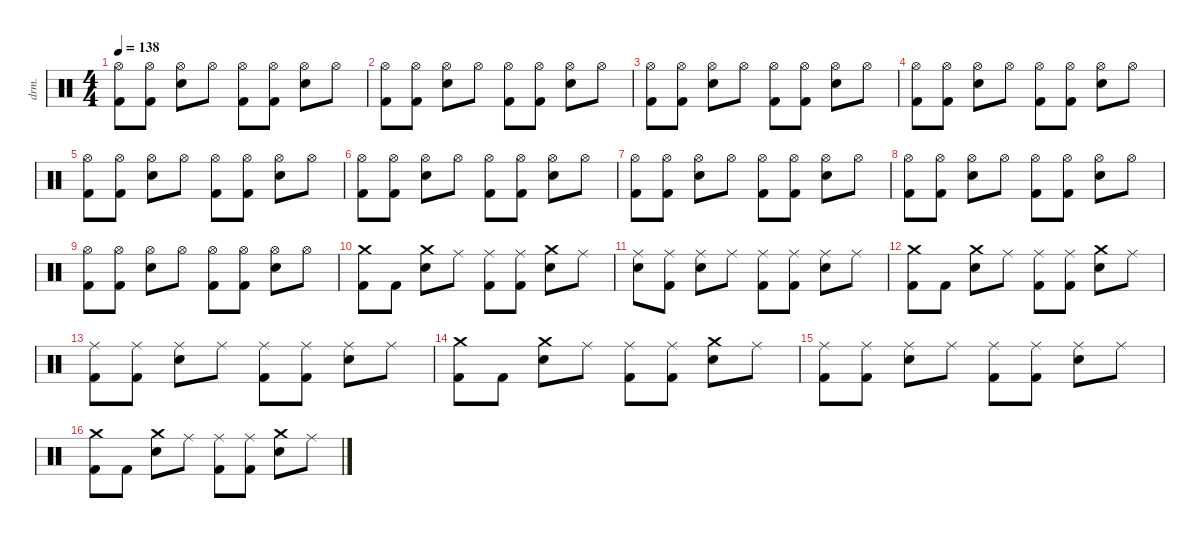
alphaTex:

\defaultSystemsLayout 4
\hideDynamics
\bracketExtendMode nobrackets
\otherSystemsTrackNameOrientation horizontal
\track ("Alex Van Halen " "drm.") {instrument percussion}
\staff {score}
\articulation defaults
\ts (4 4)
\tempo 138
\clef neutral
\ks c
("Hi-Hat (open)" "Kick (hit) 2").8{dy f beam Down} ("Hi-Hat (open)" "Kick (hit) 2").8{beam Down} ("Hi-Hat (open)" "Snare (hit) 2").8{beam Down} "Hi-Hat (open)".8{beam Down} ("Hi-Hat (open)" "Kick (hit) 2").8{beam Down} ("Hi-Hat (open)" "Kick (hit) 2").8{beam Down} ("Hi-Hat (open)" "Snare (hit) 2").8{beam Down} "Hi-Hat (open)".8{beam Down} |
("Hi-Hat (open)" "Kick (hit) 2").8{beam Down} ("Hi-Hat (open)" "Kick (hit) 2").8{beam Down} ("Hi-Hat (open)" "Snare (hit) 2").8{beam Down} "Hi-Hat (open)".8{beam Down} ("Hi-Hat (open)" "Kick (hit) 2").8{beam Down} ("Hi-Hat (open)" "Kick (hit) 2").8{beam Down} ("Hi-Hat (open)" "Snare (hit) 2").8{beam Down} "Hi-Hat (open)".8{beam Down} |
("Hi-Hat (open)" "Kick (hit) 2").8{beam Down} ("Hi-Hat (open)" "Kick (hit) 2").8{beam Down} ("Hi-Hat (open)" "Snare (hit) 2").8{beam Down} "Hi-Hat (open)".8{beam Down} ("Hi-Hat (open)" "Kick (hit) 2").8{beam Down} ("Hi-Hat (open)" "Kick (hit) 2").8{beam Down} ("Hi-Hat (open)" "Snare (hit) 2").8{beam Down} "Hi-Hat (open)".8{beam Down} |
("Hi-Hat (open)" "Kick (hit) 2").8{beam Down} ("Hi-Hat (open)" "Kick (hit) 2").8{beam Down} ("Hi-Hat (open)" "Snare (hit) 2").8{beam Down} "Hi-Hat (open)".8{beam Down} ("Hi-Hat (open)" "Kick (hit) 2").8{beam Down} ("Hi-Hat (open)" "Kick (hit) 2").8{beam Down} ("Hi-Hat (open)" "Snare (hit) 2").8{beam Down} "Hi-Hat (open)".8{beam Down} |
("Hi-Hat (open)" "Kick (hit) 2").8{beam Down} ("Hi-Hat (open)" "Kick (hit) 2").8{beam Down} ("Hi-Hat (open)" "Snare (hit) 2").8{beam Down} "Hi-Hat (open)".8{beam Down} ("Hi-Hat (open)" "Kick (hit) 2").8{beam Down} ("Hi-Hat (open)" "Kick (hit) 2").8{beam Down} ("Hi-Hat (open)" "Snare (hit) 2").8{beam Down} "Hi-Hat (open)".8{beam Down} |
("Hi-Hat (open)" "Kick (hit) 2").8{beam Down} ("Hi-Hat (open)" "Kick (hit) 2").8{beam Down} ("Hi-Hat (open)" "Snare (hit) 2").8{beam Down} "Hi-Hat (open)".8{beam Down} ("Hi-Hat (open)" "Kick (hit) 2").8{beam Down} ("Hi-Hat (open)" "Kick (hit) 2").8{beam Down} ("Hi-Hat (open)" "Snare (hit) 2").8{beam Down} "Hi-Hat (open)".8{beam Down} |
("Hi-Hat (open)" "Kick (hit) 2").8{beam Down} ("Hi-Hat (open)" "Kick (hit) 2").8{beam Down} ("Hi-Hat (open)" "Snare (hit) 2").8{beam Down} "Hi-Hat (open)".8{beam Down} ("Hi-Hat (open)" "Kick (hit) 2").8{beam Down} ("Hi-Hat (open)" "Kick (hit) 2").8{beam Down} ("Hi-Hat (open)" "Snare (hit) 2").8{beam Down} "Hi-Hat (open)".8{beam Down} |
("Hi-Hat (open)" "Kick (hit) 2").8{beam Down} ("Hi-Hat (open)" "Kick (hit) 2").8{beam Down} ("Hi-Hat (open)" "Snare (hit) 2").8{beam Down} "Hi-Hat (open)".8{beam Down} ("Hi-Hat (open)" "Kick (hit) 2").8{beam Down} ("Hi-Hat (open)" "Kick (hit) 2").8{beam Down} ("Hi-Hat (open)" "Snare (hit) 2").8{beam Down} "Hi-Hat (open)".8{beam Down} |
("Hi-Hat (open)" "Kick (hit) 2").8{beam Down} ("Hi-Hat (open)" "Kick (hit) 2").8{beam Down} ("Hi-Hat (open)" "Snare (hit) 2").8{beam Down} "Hi-Hat (open)".8{beam Down} ("Hi-Hat (open)" "Kick (hit) 2").8{beam Down} ("Hi-Hat (open)" "Kick (hit) 2").8{beam Down} ("Hi-Hat (open)" "Snare (hit) 2").8{beam Down} "Hi-Hat (open)".8{beam Down} |
("Kick (hit) 2" "Crash medium (hit)").8{dy ff beam Down} "Kick (hit) 2".8{dy f beam Down} ("Snare (hit) 2" "Crash medium (hit)").8{dy fff beam Down} "Ride (middle)".8{dy f beam Down} ("Kick (hit) 2" "Ride (middle)").8{dy ff beam Down} ("Kick (hit) 2" "Ride (middle)").8{dy f beam Down} ("Snare (hit) 2" "Crash medium (hit)").8{dy fff beam Down} "Ride (middle)".8{dy f beam Down} |
("Snare (hit) 2" "Ride (middle)").8{beam Down} ("Kick (hit) 2" "Ride (middle)").8{beam Down} ("Snare (hit) 2" "Ride (middle)").8{dy fff beam Down} "Ride (middle)".8{dy f beam Down} ("Kick (hit) 2" "Ride (middle)").8{dy ff beam Down} ("Kick (hit) 2" "Ride (middle)").8{dy f beam Down} ("Snare (hit) 2" "Ride (middle)").8{dy fff beam Down} "Ride (middle)".8{dy f beam Down} |
("Kick (hit) 2" "Crash medium (hit)").8{dy ff beam Down} "Kick (hit) 2".8{dy f beam Down} ("Snare (hit) 2" "Crash medium (hit)").8{dy fff beam Down} "Ride (middle)".8{dy f beam Down} ("Kick (hit) 2" "Ride (middle)").8{dy ff beam Down} ("Kick (hit) 2" "Ride (middle)").8{dy f beam Down} ("Snare (hit) 2" "Crash medium (hit)").8{dy fff beam Down} "Ride (middle)".8{dy f beam Down} |
("Kick (hit) 2" "Ride (middle)").8{dy ff beam Down} ("Kick (hit) 2" "Ride (middle)").8{dy f beam Down} ("Snare (hit) 2" "Ride (middle)").8{dy fff beam Down} "Ride (middle)".8{dy f beam Down} ("Kick (hit) 2" "Ride (middle)").8{dy ff beam Down} ("Kick (hit) 2" "Ride (middle)").8{dy f beam Down} ("Snare (hit) 2" "Ride (middle)").8{dy fff beam Down} "Ride (middle)".8{dy f beam Down} |
("Kick (hit) 2" "Crash medium (hit)").8{dy ff beam Down} "Kick (hit) 2".8{dy f beam Down} ("Snare (hit) 2" "Crash medium (hit)").8{dy fff beam Down} "Ride (middle)".8{dy f beam Down} ("Kick (hit) 2" "Ride (middle)").8{dy ff beam Down} ("Kick (hit) 2" "Ride (middle)").8{dy f beam Down} ("Snare (hit) 2" "Crash medium (hit)").8{dy fff beam Down} "Ride (middle)".8{dy f beam Down} |
("Kick (hit) 2" "Ride (middle)").8{dy ff beam Down} ("Kick (hit) 2" "Ride (middle)").8{dy f beam Down} ("Snare (hit) 2" "Ride (middle)").8{dy fff beam Down} "Ride (middle)".8{dy f beam Down} ("Kick (hit) 2" "Ride (middle)").8{dy ff beam Down} ("Kick (hit) 2" "Ride (middle)").8{dy f beam Down} ("Snare (hit) 2" "Ride (middle)").8{dy fff beam Down} "Ride (middle)".8{dy f beam Down} |
("Kick (hit) 2" "Crash medium (hit)").8{dy ff beam Down} "Kick (hit) 2".8{dy f beam Down} ("Snare (hit) 2" "Crash medium (hit)").8{dy fff beam Down} "Ride (middle)".8{dy f beam Down} ("Kick (hit) 2" "Ride (middle)").8{dy ff beam Down} ("Kick (hit) 2" "Ride (middle)").8{dy f beam Down} ("Snare (hit) 2" "Crash medium (hit)").8{dy fff beam Down} "Ride (middle)".8{dy f beam Down}
